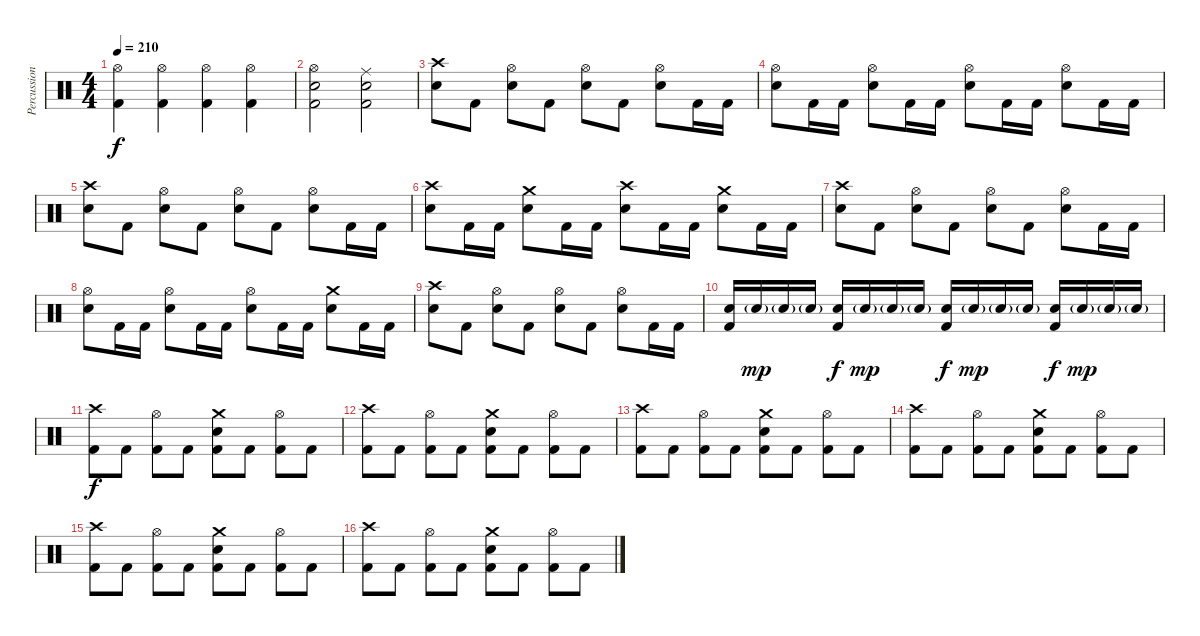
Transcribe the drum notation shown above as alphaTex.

\track ("Percussion" "Percussion") {instrument percussion}
\staff {score}
\articulation defaults
\ts (4 4)
\tempo 210
\clef neutral
\ks c
("Hi-Hat (open)" "Kick (hit) 2").4{dy f} ("Hi-Hat (open)" "Kick (hit) 2").4 ("Hi-Hat (open)" "Kick (hit) 2").4 ("Hi-Hat (open)" "Kick (hit) 2").4 |
("Hi-Hat (open)" "Electric Snare (hit)" "Kick (hit) 2").2 ("Ride (middle)" "Electric Snare (hit)" "Kick (hit) 2").2 |
("Crash high (hit)" "Electric Snare (hit)").8 "Kick (hit) 2".8 ("Hi-Hat (open)" "Electric Snare (hit)").8 "Kick (hit) 2".8 ("Hi-Hat (open)" "Electric Snare (hit)").8 "Kick (hit) 2".8 ("Hi-Hat (open)" "Electric Snare (hit)").8 "Kick (hit) 2".16 "Kick (hit) 2".16 |
("Hi-Hat (open)" "Electric Snare (hit)").8 "Kick (hit) 2".16 "Kick (hit) 2".16 ("Hi-Hat (open)" "Electric Snare (hit)").8 "Kick (hit) 2".16 "Kick (hit) 2".16 ("Hi-Hat (open)" "Electric Snare (hit)").8 "Kick (hit) 2".16 "Kick (hit) 2".16 ("Hi-Hat (open)" "Electric Snare (hit)").8 "Kick (hit) 2".16 "Kick (hit) 2".16 |
("Crash high (hit)" "Electric Snare (hit)").8 "Kick (hit) 2".8 ("Hi-Hat (open)" "Electric Snare (hit)").8 "Kick (hit) 2".8 ("Hi-Hat (open)" "Electric Snare (hit)").8 "Kick (hit) 2".8 ("Hi-Hat (open)" "Electric Snare (hit)").8 "Kick (hit) 2".16 "Kick (hit) 2".16 |
("Crash high (hit)" "Electric Snare (hit)").8 "Kick (hit) 2".16 "Kick (hit) 2".16 ("Crash medium (hit)" "Electric Snare (hit)").8 "Kick (hit) 2".16 "Kick (hit) 2".16 ("Crash high (hit)" "Electric Snare (hit)").8 "Kick (hit) 2".16 "Kick (hit) 2".16 ("Crash medium (hit)" "Electric Snare (hit)").8 "Kick (hit) 2".16 "Kick (hit) 2".16 |
("Crash high (hit)" "Electric Snare (hit)").8 "Kick (hit) 2".8 ("Hi-Hat (open)" "Electric Snare (hit)").8 "Kick (hit) 2".8 ("Hi-Hat (open)" "Electric Snare (hit)").8 "Kick (hit) 2".8 ("Hi-Hat (open)" "Electric Snare (hit)").8 "Kick (hit) 2".16 "Kick (hit) 2".16 |
("Hi-Hat (open)" "Electric Snare (hit)").8 "Kick (hit) 2".16 "Kick (hit) 2".16 ("Hi-Hat (open)" "Electric Snare (hit)").8 "Kick (hit) 2".16 "Kick (hit) 2".16 ("Hi-Hat (open)" "Electric Snare (hit)").8 "Kick (hit) 2".16 "Kick (hit) 2".16 ("Crash medium (hit)" "Electric Snare (hit)").8 "Kick (hit) 2".16 "Kick (hit) 2".16 |
("Crash high (hit)" "Electric Snare (hit)").8 "Kick (hit) 2".8 ("Hi-Hat (open)" "Electric Snare (hit)").8 "Kick (hit) 2".8 ("Hi-Hat (open)" "Electric Snare (hit)").8 "Kick (hit) 2".8 ("Hi-Hat (open)" "Electric Snare (hit)").8 "Kick (hit) 2".16 "Kick (hit) 2".16 |
("Electric Snare (hit)" "Kick (hit) 2").16 "Electric Snare (hit)"{g}.16{dy mp} "Electric Snare (hit)"{g}.16 "Electric Snare (hit)"{g}.16 ("Electric Snare (hit)" "Kick (hit) 2").16{dy f} "Electric Snare (hit)"{g}.16{dy mp} "Electric Snare (hit)"{g}.16 "Electric Snare (hit)"{g}.16 ("Electric Snare (hit)" "Kick (hit) 2").16{dy f} "Electric Snare (hit)"{g}.16{dy mp} "Electric Snare (hit)"{g}.16 "Electric Snare (hit)"{g}.16 ("Electric Snare (hit)" "Kick (hit) 2").16{dy f} "Electric Snare (hit)"{g}.16{dy mp} "Electric Snare (hit)"{g}.16 "Electric Snare (hit)"{g}.16 |
("Crash high (hit)" "Kick (hit) 2").8{dy f} "Kick (hit) 2".8 ("Hi-Hat (open)" "Kick (hit) 2").8 "Kick (hit) 2".8 ("Crash medium (hit)" "Electric Snare (hit)" "Kick (hit) 2").8 "Kick (hit) 2".8 ("Hi-Hat (open)" "Kick (hit) 2").8 "Kick (hit) 2".8 |
("Crash high (hit)" "Kick (hit) 2").8 "Kick (hit) 2".8 ("Hi-Hat (open)" "Kick (hit) 2").8 "Kick (hit) 2".8 ("Crash medium (hit)" "Electric Snare (hit)" "Kick (hit) 2").8 "Kick (hit) 2".8 ("Hi-Hat (open)" "Kick (hit) 2").8 "Kick (hit) 2".8 |
("Crash high (hit)" "Kick (hit) 2").8 "Kick (hit) 2".8 ("Hi-Hat (open)" "Kick (hit) 2").8 "Kick (hit) 2".8 ("Crash medium (hit)" "Electric Snare (hit)" "Kick (hit) 2").8 "Kick (hit) 2".8 ("Hi-Hat (open)" "Kick (hit) 2").8 "Kick (hit) 2".8 |
("Crash high (hit)" "Kick (hit) 2").8 "Kick (hit) 2".8 ("Hi-Hat (open)" "Kick (hit) 2").8 "Kick (hit) 2".8 ("Crash medium (hit)" "Electric Snare (hit)" "Kick (hit) 2").8 "Kick (hit) 2".8 ("Hi-Hat (open)" "Kick (hit) 2").8 "Kick (hit) 2".8 |
("Crash high (hit)" "Kick (hit) 2").8 "Kick (hit) 2".8 ("Hi-Hat (open)" "Kick (hit) 2").8 "Kick (hit) 2".8 ("Crash medium (hit)" "Electric Snare (hit)" "Kick (hit) 2").8 "Kick (hit) 2".8 ("Hi-Hat (open)" "Kick (hit) 2").8 "Kick (hit) 2".8 |
("Crash high (hit)" "Kick (hit) 2").8 "Kick (hit) 2".8 ("Hi-Hat (open)" "Kick (hit) 2").8 "Kick (hit) 2".8 ("Crash medium (hit)" "Electric Snare (hit)" "Kick (hit) 2").8 "Kick (hit) 2".8 ("Hi-Hat (open)" "Kick (hit) 2").8 "Kick (hit) 2".8
